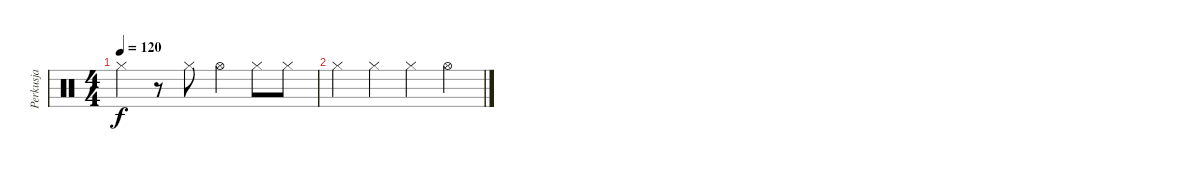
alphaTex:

\track ("Perkusja" "Perkusja") {instrument percussion}
\staff {score}
\articulation defaults
\ts (4 4)
\tempo 120
\clef neutral
\ks c "Hi-Hat (closed)".4{dy f}
r.8 "Hi-Hat (closed)".8 "Hi-Hat (open)".4 "Hi-Hat (closed)".8 "Hi-Hat (closed)".8 |
"Hi-Hat (closed)".4 "Hi-Hat (closed)".4 "Hi-Hat (closed)".4 "Hi-Hat (open)".4
